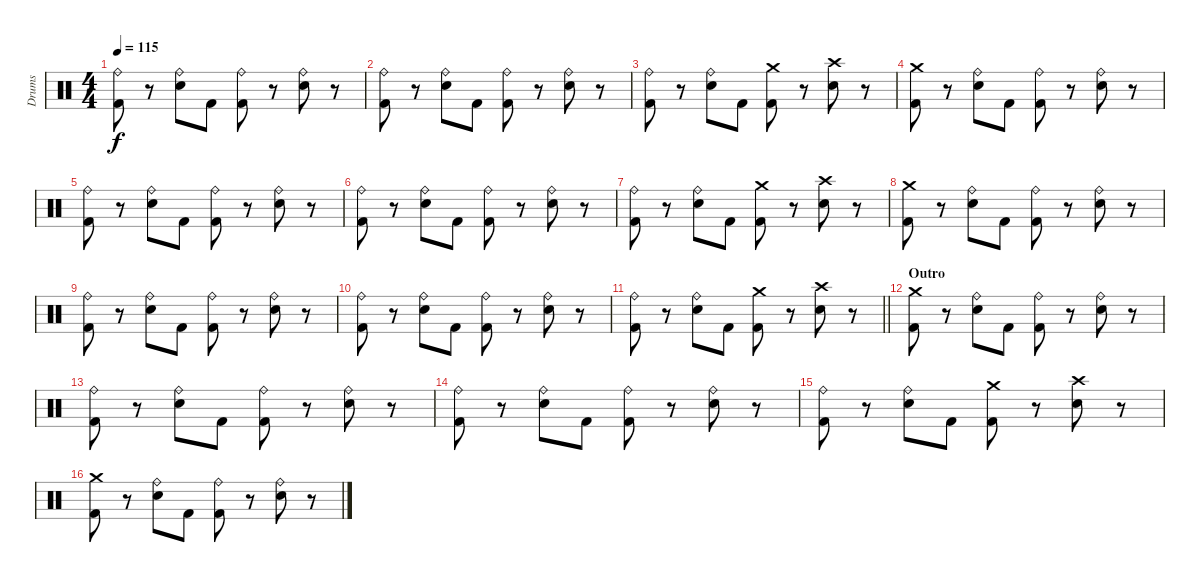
\track ("Drums" "Drums") {instrument percussion}
\staff {score}
\articulation defaults
\ts (4 4)
\tempo 115
\clef neutral
\ks c
("Ride (bell)" "Kick (hit) 2").8{dy f} r.8 ("Ride (bell)" "Electric Snare (hit)").8 "Kick (hit) 2".8 ("Ride (bell)" "Kick (hit) 2").8 r.8 ("Ride (bell)" "Electric Snare (hit)").8 r.8 |
("Ride (bell)" "Kick (hit) 2").8 r.8 ("Ride (bell)" "Electric Snare (hit)").8 "Kick (hit) 2".8 ("Ride (bell)" "Kick (hit) 2").8 r.8 ("Ride (bell)" "Electric Snare (hit)").8 r.8 |
("Ride (bell)" "Kick (hit) 2").8 r.8 ("Ride (bell)" "Electric Snare (hit)").8 "Kick (hit) 2".8 ("Crash medium (hit)" "Kick (hit) 2").8 r.8 ("Crash high (hit)" "Electric Snare (hit)").8 r.8 |
("Crash medium (hit)" "Kick (hit) 2").8 r.8 ("Ride (bell)" "Electric Snare (hit)").8 "Kick (hit) 2".8 ("Ride (bell)" "Kick (hit) 2").8 r.8 ("Ride (bell)" "Electric Snare (hit)").8 r.8 |
("Ride (bell)" "Kick (hit) 2").8 r.8 ("Ride (bell)" "Electric Snare (hit)").8 "Kick (hit) 2".8 ("Ride (bell)" "Kick (hit) 2").8 r.8 ("Ride (bell)" "Electric Snare (hit)").8 r.8 |
("Ride (bell)" "Kick (hit) 2").8 r.8 ("Ride (bell)" "Electric Snare (hit)").8 "Kick (hit) 2".8 ("Ride (bell)" "Kick (hit) 2").8 r.8 ("Ride (bell)" "Electric Snare (hit)").8 r.8 |
("Ride (bell)" "Kick (hit) 2").8 r.8 ("Ride (bell)" "Electric Snare (hit)").8 "Kick (hit) 2".8 ("Crash medium (hit)" "Kick (hit) 2").8 r.8 ("Crash high (hit)" "Electric Snare (hit)").8 r.8 |
("Crash medium (hit)" "Kick (hit) 2").8 r.8 ("Ride (bell)" "Electric Snare (hit)").8 "Kick (hit) 2".8 ("Ride (bell)" "Kick (hit) 2").8 r.8 ("Ride (bell)" "Electric Snare (hit)").8 r.8 |
("Ride (bell)" "Kick (hit) 2").8 r.8 ("Ride (bell)" "Electric Snare (hit)").8 "Kick (hit) 2".8 ("Ride (bell)" "Kick (hit) 2").8 r.8 ("Ride (bell)" "Electric Snare (hit)").8 r.8 |
("Ride (bell)" "Kick (hit) 2").8 r.8 ("Ride (bell)" "Electric Snare (hit)").8 "Kick (hit) 2".8 ("Ride (bell)" "Kick (hit) 2").8 r.8 ("Ride (bell)" "Electric Snare (hit)").8 r.8 |
\barLineRight lightlight
("Ride (bell)" "Kick (hit) 2").8 r.8 ("Ride (bell)" "Electric Snare (hit)").8 "Kick (hit) 2".8 ("Crash medium (hit)" "Kick (hit) 2").8 r.8 ("Crash high (hit)" "Electric Snare (hit)").8 r.8 |
\section ("" "Outro")
("Crash medium (hit)" "Kick (hit) 2").8 r.8 ("Ride (bell)" "Electric Snare (hit)").8 "Kick (hit) 2".8 ("Ride (bell)" "Kick (hit) 2").8 r.8 ("Ride (bell)" "Electric Snare (hit)").8 r.8 |
("Ride (bell)" "Kick (hit) 2").8 r.8 ("Ride (bell)" "Electric Snare (hit)").8 "Kick (hit) 2".8 ("Ride (bell)" "Kick (hit) 2").8 r.8 ("Ride (bell)" "Electric Snare (hit)").8 r.8 |
("Ride (bell)" "Kick (hit) 2").8 r.8 ("Ride (bell)" "Electric Snare (hit)").8 "Kick (hit) 2".8 ("Ride (bell)" "Kick (hit) 2").8 r.8 ("Ride (bell)" "Electric Snare (hit)").8 r.8 |
("Ride (bell)" "Kick (hit) 2").8 r.8 ("Ride (bell)" "Electric Snare (hit)").8 "Kick (hit) 2".8 ("Crash medium (hit)" "Kick (hit) 2").8 r.8 ("Crash high (hit)" "Electric Snare (hit)").8 r.8 |
("Crash medium (hit)" "Kick (hit) 2").8 r.8 ("Ride (bell)" "Electric Snare (hit)").8 "Kick (hit) 2".8 ("Ride (bell)" "Kick (hit) 2").8 r.8 ("Ride (bell)" "Electric Snare (hit)").8 r.8
